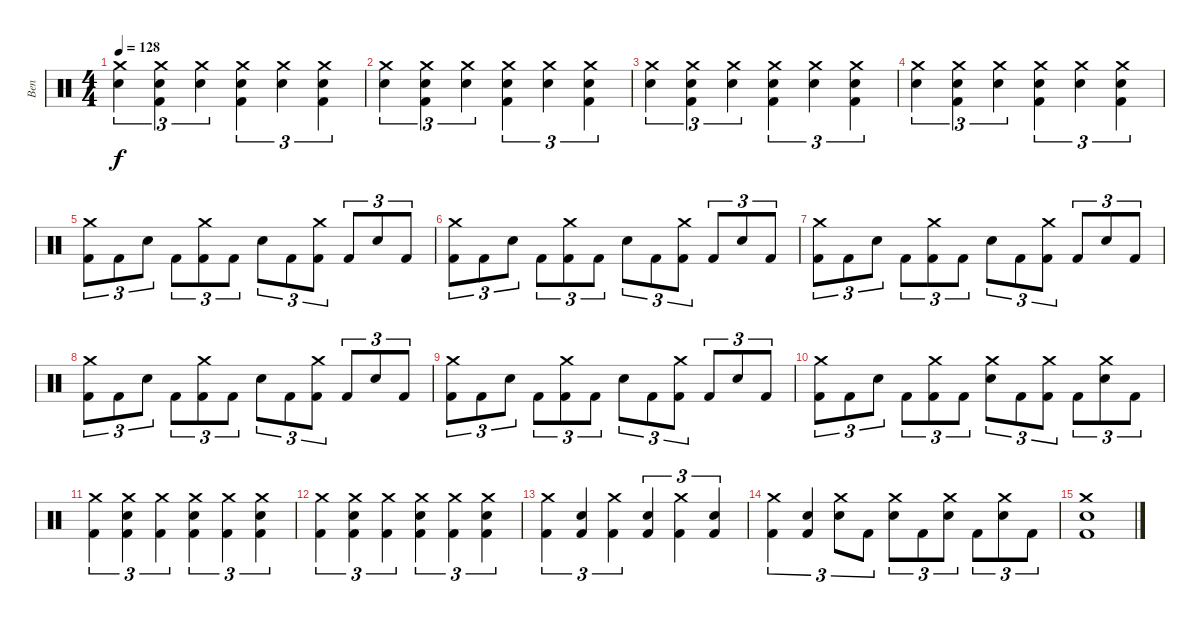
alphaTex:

\track ("Ben" "Ben") {instrument percussion}
\staff {score}
\articulation defaults
\ts (4 4)
\tempo 128
\clef neutral
\ks c
("Crash medium (hit)" "Electric Snare (hit)").4{tu (3 2) dy f} ("Crash medium (hit)" "Electric Snare (hit)" "Kick (hit) 2").4{tu (3 2)} ("Crash medium (hit)" "Electric Snare (hit)").4{tu (3 2)} ("Crash medium (hit)" "Electric Snare (hit)" "Kick (hit) 2").4{tu (3 2)} ("Crash medium (hit)" "Electric Snare (hit)").4{tu (3 2)} ("Crash medium (hit)" "Electric Snare (hit)" "Kick (hit) 2").4{tu (3 2)} |
("Crash medium (hit)" "Electric Snare (hit)").4{tu (3 2)} ("Crash medium (hit)" "Electric Snare (hit)" "Kick (hit) 2").4{tu (3 2)} ("Crash medium (hit)" "Electric Snare (hit)").4{tu (3 2)} ("Crash medium (hit)" "Electric Snare (hit)" "Kick (hit) 2").4{tu (3 2)} ("Crash medium (hit)" "Electric Snare (hit)").4{tu (3 2)} ("Crash medium (hit)" "Electric Snare (hit)" "Kick (hit) 2").4{tu (3 2)} |
("Crash medium (hit)" "Electric Snare (hit)").4{tu (3 2)} ("Crash medium (hit)" "Electric Snare (hit)" "Kick (hit) 2").4{tu (3 2)} ("Crash medium (hit)" "Electric Snare (hit)").4{tu (3 2)} ("Crash medium (hit)" "Electric Snare (hit)" "Kick (hit) 2").4{tu (3 2)} ("Crash medium (hit)" "Electric Snare (hit)").4{tu (3 2)} ("Crash medium (hit)" "Electric Snare (hit)" "Kick (hit) 2").4{tu (3 2)} |
("Crash medium (hit)" "Electric Snare (hit)").4{tu (3 2)} ("Crash medium (hit)" "Electric Snare (hit)" "Kick (hit) 2").4{tu (3 2)} ("Crash medium (hit)" "Electric Snare (hit)").4{tu (3 2)} ("Crash medium (hit)" "Electric Snare (hit)" "Kick (hit) 2").4{tu (3 2)} ("Crash medium (hit)" "Electric Snare (hit)").4{tu (3 2)} ("Crash medium (hit)" "Electric Snare (hit)" "Kick (hit) 2").4{tu (3 2)} |
("Crash medium (hit)" "Kick (hit) 2").8{tu (3 2)} "Kick (hit) 2".8{tu (3 2)} "Electric Snare (hit)".8{tu (3 2)} "Kick (hit) 2".8{tu (3 2)} ("Crash medium (hit)" "Kick (hit) 2").8{tu (3 2)} "Kick (hit) 2".8{tu (3 2)} "Electric Snare (hit)".8{tu (3 2)} "Kick (hit) 2".8{tu (3 2)} ("Crash medium (hit)" "Kick (hit) 2").8{tu (3 2)} "Kick (hit) 2".8{tu (3 2)} "Electric Snare (hit)".8{tu (3 2)} "Kick (hit) 2".8{tu (3 2)} |
("Crash medium (hit)" "Kick (hit) 2").8{tu (3 2)} "Kick (hit) 2".8{tu (3 2)} "Electric Snare (hit)".8{tu (3 2)} "Kick (hit) 2".8{tu (3 2)} ("Crash medium (hit)" "Kick (hit) 2").8{tu (3 2)} "Kick (hit) 2".8{tu (3 2)} "Electric Snare (hit)".8{tu (3 2)} "Kick (hit) 2".8{tu (3 2)} ("Crash medium (hit)" "Kick (hit) 2").8{tu (3 2)} "Kick (hit) 2".8{tu (3 2)} "Electric Snare (hit)".8{tu (3 2)} "Kick (hit) 2".8{tu (3 2)} |
("Crash medium (hit)" "Kick (hit) 2").8{tu (3 2)} "Kick (hit) 2".8{tu (3 2)} "Electric Snare (hit)".8{tu (3 2)} "Kick (hit) 2".8{tu (3 2)} ("Crash medium (hit)" "Kick (hit) 2").8{tu (3 2)} "Kick (hit) 2".8{tu (3 2)} "Electric Snare (hit)".8{tu (3 2)} "Kick (hit) 2".8{tu (3 2)} ("Crash medium (hit)" "Kick (hit) 2").8{tu (3 2)} "Kick (hit) 2".8{tu (3 2)} "Electric Snare (hit)".8{tu (3 2)} "Kick (hit) 2".8{tu (3 2)} |
("Crash medium (hit)" "Kick (hit) 2").8{tu (3 2)} "Kick (hit) 2".8{tu (3 2)} "Electric Snare (hit)".8{tu (3 2)} "Kick (hit) 2".8{tu (3 2)} ("Crash medium (hit)" "Kick (hit) 2").8{tu (3 2)} "Kick (hit) 2".8{tu (3 2)} "Electric Snare (hit)".8{tu (3 2)} "Kick (hit) 2".8{tu (3 2)} ("Crash medium (hit)" "Kick (hit) 2").8{tu (3 2)} "Kick (hit) 2".8{tu (3 2)} "Electric Snare (hit)".8{tu (3 2)} "Kick (hit) 2".8{tu (3 2)} |
("Crash medium (hit)" "Kick (hit) 2").8{tu (3 2)} "Kick (hit) 2".8{tu (3 2)} "Electric Snare (hit)".8{tu (3 2)} "Kick (hit) 2".8{tu (3 2)} ("Crash medium (hit)" "Kick (hit) 2").8{tu (3 2)} "Kick (hit) 2".8{tu (3 2)} "Electric Snare (hit)".8{tu (3 2)} "Kick (hit) 2".8{tu (3 2)} ("Crash medium (hit)" "Kick (hit) 2").8{tu (3 2)} "Kick (hit) 2".8{tu (3 2)} "Electric Snare (hit)".8{tu (3 2)} "Kick (hit) 2".8{tu (3 2)} |
("Crash medium (hit)" "Kick (hit) 2").8{tu (3 2)} "Kick (hit) 2".8{tu (3 2)} "Electric Snare (hit)".8{tu (3 2)} "Kick (hit) 2".8{tu (3 2)} ("Crash medium (hit)" "Kick (hit) 2").8{tu (3 2)} "Kick (hit) 2".8{tu (3 2)} ("Crash medium (hit)" "Electric Snare (hit)").8{tu (3 2)} "Kick (hit) 2".8{tu (3 2)} ("Crash medium (hit)" "Kick (hit) 2").8{tu (3 2)} "Kick (hit) 2".8{tu (3 2)} ("Crash medium (hit)" "Electric Snare (hit)").8{tu (3 2)} "Kick (hit) 2".8{tu (3 2)} |
("Crash medium (hit)" "Kick (hit) 2").4{tu (3 2)} ("Crash medium (hit)" "Electric Snare (hit)" "Kick (hit) 2").4{tu (3 2)} ("Crash medium (hit)" "Kick (hit) 2").4{tu (3 2)} ("Crash medium (hit)" "Electric Snare (hit)" "Kick (hit) 2").4{tu (3 2)} ("Crash medium (hit)" "Kick (hit) 2").4{tu (3 2)} ("Crash medium (hit)" "Electric Snare (hit)" "Kick (hit) 2").4{tu (3 2)} |
("Crash medium (hit)" "Kick (hit) 2").4{tu (3 2)} ("Crash medium (hit)" "Electric Snare (hit)" "Kick (hit) 2").4{tu (3 2)} ("Crash medium (hit)" "Kick (hit) 2").4{tu (3 2)} ("Crash medium (hit)" "Electric Snare (hit)" "Kick (hit) 2").4{tu (3 2)} ("Crash medium (hit)" "Kick (hit) 2").4{tu (3 2)} ("Crash medium (hit)" "Electric Snare (hit)" "Kick (hit) 2").4{tu (3 2)} |
("Crash medium (hit)" "Kick (hit) 2").4{tu (3 2)} ("Electric Snare (hit)" "Kick (hit) 2").4{tu (3 2)} ("Crash medium (hit)" "Kick (hit) 2").4{tu (3 2)} ("Electric Snare (hit)" "Kick (hit) 2").4{tu (3 2)} ("Crash medium (hit)" "Kick (hit) 2").4{tu (3 2)} ("Electric Snare (hit)" "Kick (hit) 2").4{tu (3 2)} |
("Crash medium (hit)" "Kick (hit) 2").4{tu (3 2)} ("Electric Snare (hit)" "Kick (hit) 2").4{tu (3 2)} ("Crash medium (hit)" "Electric Snare (hit)").8{tu (3 2)} "Kick (hit) 2".8{tu (3 2)} ("Crash medium (hit)" "Electric Snare (hit)").8{tu (3 2)} "Kick (hit) 2".8{tu (3 2)} ("Crash medium (hit)" "Electric Snare (hit)").8{tu (3 2)} "Kick (hit) 2".8{tu (3 2)} ("Crash medium (hit)" "Electric Snare (hit)").8{tu (3 2)} "Kick (hit) 2".8{tu (3 2)} |
("Crash medium (hit)" "Electric Snare (hit)" "Kick (hit) 2").1
